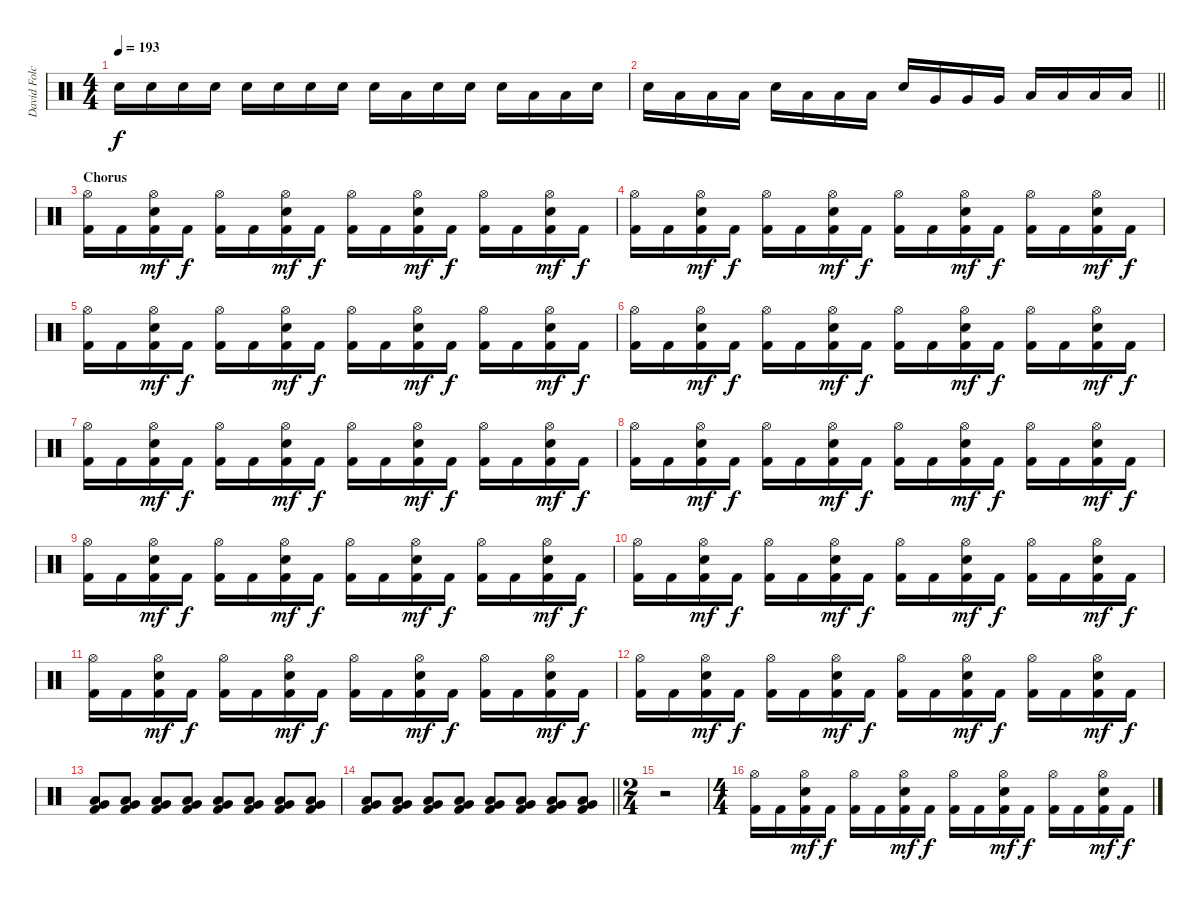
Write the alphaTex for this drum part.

\track ("David Folchitto (Drums)" "David Folc") {instrument percussion}
\staff {score}
\articulation defaults
\ts (4 4)
\tempo 193
\clef neutral
\ks c "Snare (hit) 2".16{dy f} "Snare (hit) 2".16 "Snare (hit) 2".16 "Snare (hit) 2".16 "Snare (hit) 2".16 "Snare (hit) 2".16 "Snare (hit) 2".16 "Snare (hit) 2".16 "Snare (hit) 2".16 "Low Tom (hit)".16 "Snare (hit) 2".16 "Snare (hit) 2".16 "Snare (hit) 2".16 "Low Tom (hit)".16 "Low Tom (hit)".16 "Snare (hit) 2".16
|
\barLineRight lightlight "Snare (hit) 2".16 "Low Tom (hit)".16 "Low Tom (hit)".16 "Low Tom (hit)".16 "Snare (hit) 2".16 "Low Tom (hit)".16 "Low Tom (hit)".16 "Low Tom (hit)".16 "Snare (hit) 2".16 "Very Low Tom (hit)".16 "Very Low Tom (hit)".16 "Very Low Tom (hit)".16 "Low Floor Tom (hit)".16 "Low Floor Tom (hit)".16 "Low Floor Tom (hit)".16 "Low Floor Tom (hit)".16
|
\section ("" "Chorus")
("Hi-Hat (open)" "Kick (hit) 2").16 "Kick (hit) 2".16 ("Hi-Hat (open)" "Snare (hit) 2" "Kick (hit) 2").16{dy mf} "Kick (hit) 2".16{dy f} ("Hi-Hat (open)" "Kick (hit) 2").16 "Kick (hit) 2".16 ("Hi-Hat (open)" "Snare (hit) 2" "Kick (hit) 2").16{dy mf} "Kick (hit) 2".16{dy f} ("Hi-Hat (open)" "Kick (hit) 2").16 "Kick (hit) 2".16 ("Hi-Hat (open)" "Snare (hit) 2" "Kick (hit) 2").16{dy mf} "Kick (hit) 2".16{dy f} ("Hi-Hat (open)" "Kick (hit) 2").16 "Kick (hit) 2".16 ("Hi-Hat (open)" "Snare (hit) 2" "Kick (hit) 2").16{dy mf} "Kick (hit) 2".16{dy f} |
("Hi-Hat (open)" "Kick (hit) 2").16 "Kick (hit) 2".16 ("Hi-Hat (open)" "Snare (hit) 2" "Kick (hit) 2").16{dy mf} "Kick (hit) 2".16{dy f} ("Hi-Hat (open)" "Kick (hit) 2").16 "Kick (hit) 2".16 ("Hi-Hat (open)" "Snare (hit) 2" "Kick (hit) 2").16{dy mf} "Kick (hit) 2".16{dy f} ("Hi-Hat (open)" "Kick (hit) 2").16 "Kick (hit) 2".16 ("Hi-Hat (open)" "Snare (hit) 2" "Kick (hit) 2").16{dy mf} "Kick (hit) 2".16{dy f} ("Hi-Hat (open)" "Kick (hit) 2").16 "Kick (hit) 2".16 ("Hi-Hat (open)" "Snare (hit) 2" "Kick (hit) 2").16{dy mf} "Kick (hit) 2".16{dy f} |
("Hi-Hat (open)" "Kick (hit) 2").16 "Kick (hit) 2".16 ("Hi-Hat (open)" "Snare (hit) 2" "Kick (hit) 2").16{dy mf} "Kick (hit) 2".16{dy f} ("Hi-Hat (open)" "Kick (hit) 2").16 "Kick (hit) 2".16 ("Hi-Hat (open)" "Snare (hit) 2" "Kick (hit) 2").16{dy mf} "Kick (hit) 2".16{dy f} ("Hi-Hat (open)" "Kick (hit) 2").16 "Kick (hit) 2".16 ("Hi-Hat (open)" "Snare (hit) 2" "Kick (hit) 2").16{dy mf} "Kick (hit) 2".16{dy f} ("Hi-Hat (open)" "Kick (hit) 2").16 "Kick (hit) 2".16 ("Hi-Hat (open)" "Snare (hit) 2" "Kick (hit) 2").16{dy mf} "Kick (hit) 2".16{dy f} |
("Hi-Hat (open)" "Kick (hit) 2").16 "Kick (hit) 2".16 ("Hi-Hat (open)" "Snare (hit) 2" "Kick (hit) 2").16{dy mf} "Kick (hit) 2".16{dy f} ("Hi-Hat (open)" "Kick (hit) 2").16 "Kick (hit) 2".16 ("Hi-Hat (open)" "Snare (hit) 2" "Kick (hit) 2").16{dy mf} "Kick (hit) 2".16{dy f} ("Hi-Hat (open)" "Kick (hit) 2").16 "Kick (hit) 2".16 ("Hi-Hat (open)" "Snare (hit) 2" "Kick (hit) 2").16{dy mf} "Kick (hit) 2".16{dy f} ("Hi-Hat (open)" "Kick (hit) 2").16 "Kick (hit) 2".16 ("Hi-Hat (open)" "Snare (hit) 2" "Kick (hit) 2").16{dy mf} "Kick (hit) 2".16{dy f} |
("Hi-Hat (open)" "Kick (hit) 2").16 "Kick (hit) 2".16 ("Hi-Hat (open)" "Snare (hit) 2" "Kick (hit) 2").16{dy mf} "Kick (hit) 2".16{dy f} ("Hi-Hat (open)" "Kick (hit) 2").16 "Kick (hit) 2".16 ("Hi-Hat (open)" "Snare (hit) 2" "Kick (hit) 2").16{dy mf} "Kick (hit) 2".16{dy f} ("Hi-Hat (open)" "Kick (hit) 2").16 "Kick (hit) 2".16 ("Hi-Hat (open)" "Snare (hit) 2" "Kick (hit) 2").16{dy mf} "Kick (hit) 2".16{dy f} ("Hi-Hat (open)" "Kick (hit) 2").16 "Kick (hit) 2".16 ("Hi-Hat (open)" "Snare (hit) 2" "Kick (hit) 2").16{dy mf} "Kick (hit) 2".16{dy f} |
("Hi-Hat (open)" "Kick (hit) 2").16 "Kick (hit) 2".16 ("Hi-Hat (open)" "Snare (hit) 2" "Kick (hit) 2").16{dy mf} "Kick (hit) 2".16{dy f} ("Hi-Hat (open)" "Kick (hit) 2").16 "Kick (hit) 2".16 ("Hi-Hat (open)" "Snare (hit) 2" "Kick (hit) 2").16{dy mf} "Kick (hit) 2".16{dy f} ("Hi-Hat (open)" "Kick (hit) 2").16 "Kick (hit) 2".16 ("Hi-Hat (open)" "Snare (hit) 2" "Kick (hit) 2").16{dy mf} "Kick (hit) 2".16{dy f} ("Hi-Hat (open)" "Kick (hit) 2").16 "Kick (hit) 2".16 ("Hi-Hat (open)" "Snare (hit) 2" "Kick (hit) 2").16{dy mf} "Kick (hit) 2".16{dy f} |
("Hi-Hat (open)" "Kick (hit) 2").16 "Kick (hit) 2".16 ("Hi-Hat (open)" "Snare (hit) 2" "Kick (hit) 2").16{dy mf} "Kick (hit) 2".16{dy f} ("Hi-Hat (open)" "Kick (hit) 2").16 "Kick (hit) 2".16 ("Hi-Hat (open)" "Snare (hit) 2" "Kick (hit) 2").16{dy mf} "Kick (hit) 2".16{dy f} ("Hi-Hat (open)" "Kick (hit) 2").16 "Kick (hit) 2".16 ("Hi-Hat (open)" "Snare (hit) 2" "Kick (hit) 2").16{dy mf} "Kick (hit) 2".16{dy f} ("Hi-Hat (open)" "Kick (hit) 2").16 "Kick (hit) 2".16 ("Hi-Hat (open)" "Snare (hit) 2" "Kick (hit) 2").16{dy mf} "Kick (hit) 2".16{dy f} |
("Hi-Hat (open)" "Kick (hit) 2").16 "Kick (hit) 2".16 ("Hi-Hat (open)" "Snare (hit) 2" "Kick (hit) 2").16{dy mf} "Kick (hit) 2".16{dy f} ("Hi-Hat (open)" "Kick (hit) 2").16 "Kick (hit) 2".16 ("Hi-Hat (open)" "Snare (hit) 2" "Kick (hit) 2").16{dy mf} "Kick (hit) 2".16{dy f} ("Hi-Hat (open)" "Kick (hit) 2").16 "Kick (hit) 2".16 ("Hi-Hat (open)" "Snare (hit) 2" "Kick (hit) 2").16{dy mf} "Kick (hit) 2".16{dy f} ("Hi-Hat (open)" "Kick (hit) 2").16 "Kick (hit) 2".16 ("Hi-Hat (open)" "Snare (hit) 2" "Kick (hit) 2").16{dy mf} "Kick (hit) 2".16{dy f} |
("Hi-Hat (open)" "Kick (hit) 2").16 "Kick (hit) 2".16 ("Hi-Hat (open)" "Snare (hit) 2" "Kick (hit) 2").16{dy mf} "Kick (hit) 2".16{dy f} ("Hi-Hat (open)" "Kick (hit) 2").16 "Kick (hit) 2".16 ("Hi-Hat (open)" "Snare (hit) 2" "Kick (hit) 2").16{dy mf} "Kick (hit) 2".16{dy f} ("Hi-Hat (open)" "Kick (hit) 2").16 "Kick (hit) 2".16 ("Hi-Hat (open)" "Snare (hit) 2" "Kick (hit) 2").16{dy mf} "Kick (hit) 2".16{dy f} ("Hi-Hat (open)" "Kick (hit) 2").16 "Kick (hit) 2".16 ("Hi-Hat (open)" "Snare (hit) 2" "Kick (hit) 2").16{dy mf} "Kick (hit) 2".16{dy f} |
("Hi-Hat (open)" "Kick (hit) 2").16 "Kick (hit) 2".16 ("Hi-Hat (open)" "Snare (hit) 2" "Kick (hit) 2").16{dy mf} "Kick (hit) 2".16{dy f} ("Hi-Hat (open)" "Kick (hit) 2").16 "Kick (hit) 2".16 ("Hi-Hat (open)" "Snare (hit) 2" "Kick (hit) 2").16{dy mf} "Kick (hit) 2".16{dy f} ("Hi-Hat (open)" "Kick (hit) 2").16 "Kick (hit) 2".16 ("Hi-Hat (open)" "Snare (hit) 2" "Kick (hit) 2").16{dy mf} "Kick (hit) 2".16{dy f} ("Hi-Hat (open)" "Kick (hit) 2").16 "Kick (hit) 2".16 ("Hi-Hat (open)" "Snare (hit) 2" "Kick (hit) 2").16{dy mf} "Kick (hit) 2".16{dy f} |
("Low Tom (hit)" "Very Low Tom (hit)" "Kick (hit) 2").8 ("Low Tom (hit)" "Very Low Tom (hit)" "Kick (hit) 2").8 ("Low Tom (hit)" "Very Low Tom (hit)" "Kick (hit) 2").8 ("Low Tom (hit)" "Very Low Tom (hit)" "Kick (hit) 2").8 ("Low Tom (hit)" "Very Low Tom (hit)" "Kick (hit) 2").8 ("Low Tom (hit)" "Very Low Tom (hit)" "Kick (hit) 2").8 ("Low Tom (hit)" "Very Low Tom (hit)" "Kick (hit) 2").8 ("Low Tom (hit)" "Very Low Tom (hit)" "Kick (hit) 2").8 |
\barLineRight lightlight
("Low Tom (hit)" "Very Low Tom (hit)" "Kick (hit) 2").8 ("Low Tom (hit)" "Very Low Tom (hit)" "Kick (hit) 2").8 ("Low Tom (hit)" "Very Low Tom (hit)" "Kick (hit) 2").8 ("Low Tom (hit)" "Very Low Tom (hit)" "Kick (hit) 2").8 ("Low Tom (hit)" "Very Low Tom (hit)" "Kick (hit) 2").8 ("Low Tom (hit)" "Very Low Tom (hit)" "Kick (hit) 2").8 ("Low Tom (hit)" "Very Low Tom (hit)" "Kick (hit) 2").8 ("Low Tom (hit)" "Very Low Tom (hit)" "Kick (hit) 2").8 |
\ts (2 4)
r.2 |
\ts (4 4)
("Hi-Hat (open)" "Kick (hit) 2").16 "Kick (hit) 2".16 ("Hi-Hat (open)" "Snare (hit) 2" "Kick (hit) 2").16{dy mf} "Kick (hit) 2".16{dy f} ("Hi-Hat (open)" "Kick (hit) 2").16 "Kick (hit) 2".16 ("Hi-Hat (open)" "Snare (hit) 2" "Kick (hit) 2").16{dy mf} "Kick (hit) 2".16{dy f} ("Hi-Hat (open)" "Kick (hit) 2").16 "Kick (hit) 2".16 ("Hi-Hat (open)" "Snare (hit) 2" "Kick (hit) 2").16{dy mf} "Kick (hit) 2".16{dy f} ("Hi-Hat (open)" "Kick (hit) 2").16 "Kick (hit) 2".16 ("Hi-Hat (open)" "Snare (hit) 2" "Kick (hit) 2").16{dy mf} "Kick (hit) 2".16{dy f}
